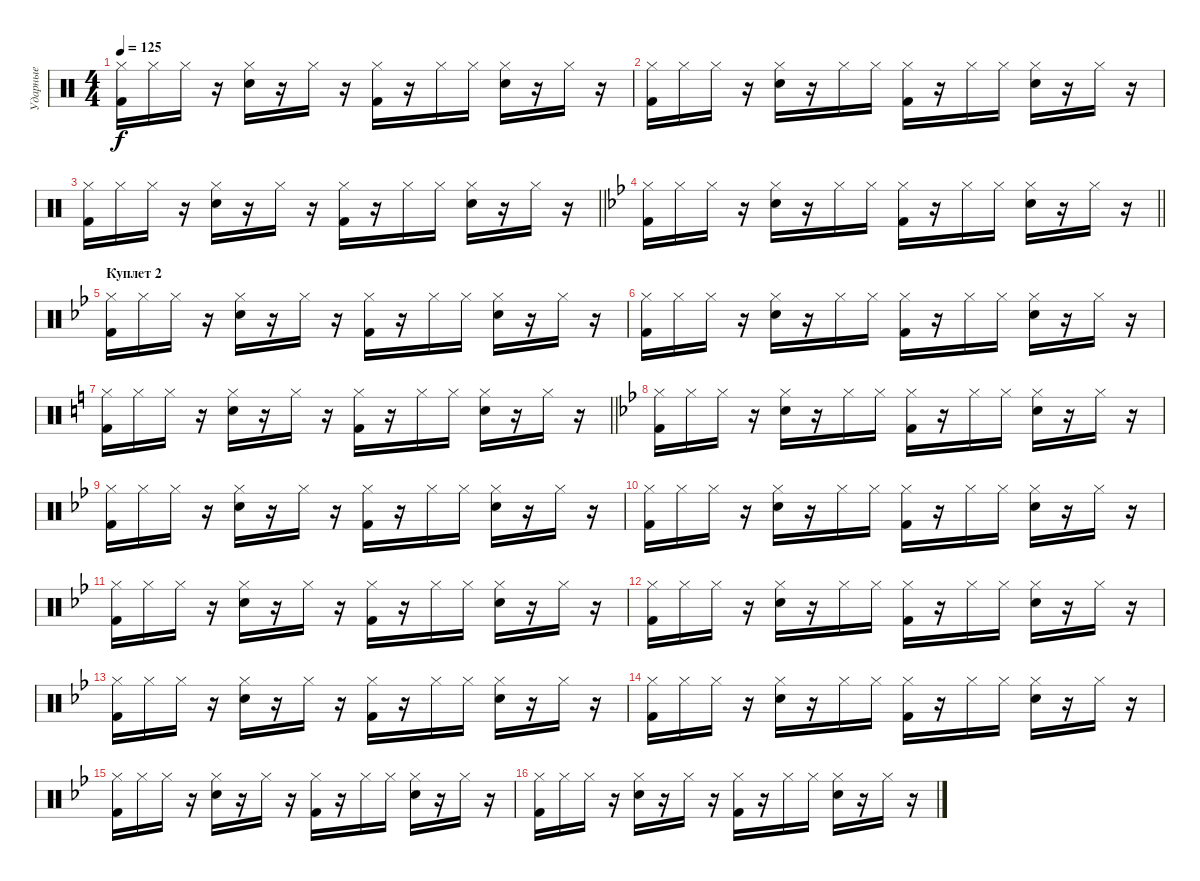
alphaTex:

\track ("Ударные" "Ударные") {instrument percussion}
\staff {score}
\articulation defaults
\ts (4 4)
\tempo 125
\clef neutral
\ks c
("Kick (hit) 2" "Hi-Hat (closed)").16{dy f} "Hi-Hat (closed)".16 "Hi-Hat (closed)".16 r.16 ("Snare (hit) 2" "Hi-Hat (closed)").16 r.16 "Hi-Hat (closed)".16 r.16 ("Kick (hit) 2" "Hi-Hat (closed)").16 r.16 "Hi-Hat (closed)".16 "Hi-Hat (closed)".16 ("Snare (hit) 2" "Hi-Hat (closed)").16 r.16 "Hi-Hat (closed)".16 r.16 |
("Kick (hit) 2" "Hi-Hat (closed)").16 "Hi-Hat (closed)".16 "Hi-Hat (closed)".16 r.16 ("Snare (hit) 2" "Hi-Hat (closed)").16 r.16 "Hi-Hat (closed)".16 "Hi-Hat (closed)".16 ("Kick (hit) 2" "Hi-Hat (closed)").16 r.16 "Hi-Hat (closed)".16 "Hi-Hat (closed)".16 ("Snare (hit) 2" "Hi-Hat (closed)").16 r.16 "Hi-Hat (closed)".16 r.16 |
\barLineRight lightlight
("Kick (hit) 2" "Hi-Hat (closed)").16 "Hi-Hat (closed)".16 "Hi-Hat (closed)".16 r.16 ("Snare (hit) 2" "Hi-Hat (closed)").16 r.16 "Hi-Hat (closed)".16 r.16 ("Kick (hit) 2" "Hi-Hat (closed)").16 r.16 "Hi-Hat (closed)".16 "Hi-Hat (closed)".16 ("Snare (hit) 2" "Hi-Hat (closed)").16 r.16 "Hi-Hat (closed)".16 r.16 |
\barLineRight lightlight
\ks bb
("Kick (hit) 2" "Hi-Hat (closed)").16 "Hi-Hat (closed)".16 "Hi-Hat (closed)".16 r.16 ("Snare (hit) 2" "Hi-Hat (closed)").16 r.16 "Hi-Hat (closed)".16 "Hi-Hat (closed)".16 ("Kick (hit) 2" "Hi-Hat (closed)").16 r.16 "Hi-Hat (closed)".16 "Hi-Hat (closed)".16 ("Snare (hit) 2" "Hi-Hat (closed)").16 r.16 "Hi-Hat (closed)".16 r.16 |
\section ("" "Куплет 2")
("Kick (hit) 2" "Hi-Hat (closed)").16 "Hi-Hat (closed)".16 "Hi-Hat (closed)".16 r.16 ("Snare (hit) 2" "Hi-Hat (closed)").16 r.16 "Hi-Hat (closed)".16 r.16 ("Kick (hit) 2" "Hi-Hat (closed)").16 r.16 "Hi-Hat (closed)".16 "Hi-Hat (closed)".16 ("Snare (hit) 2" "Hi-Hat (closed)").16 r.16 "Hi-Hat (closed)".16 r.16 |
("Kick (hit) 2" "Hi-Hat (closed)").16 "Hi-Hat (closed)".16 "Hi-Hat (closed)".16 r.16 ("Snare (hit) 2" "Hi-Hat (closed)").16 r.16 "Hi-Hat (closed)".16 "Hi-Hat (closed)".16 ("Kick (hit) 2" "Hi-Hat (closed)").16 r.16 "Hi-Hat (closed)".16 "Hi-Hat (closed)".16 ("Snare (hit) 2" "Hi-Hat (closed)").16 r.16 "Hi-Hat (closed)".16 r.16 |
\barLineRight lightlight
\ks c
("Kick (hit) 2" "Hi-Hat (closed)").16 "Hi-Hat (closed)".16 "Hi-Hat (closed)".16 r.16 ("Snare (hit) 2" "Hi-Hat (closed)").16 r.16 "Hi-Hat (closed)".16 r.16 ("Kick (hit) 2" "Hi-Hat (closed)").16 r.16 "Hi-Hat (closed)".16 "Hi-Hat (closed)".16 ("Snare (hit) 2" "Hi-Hat (closed)").16 r.16 "Hi-Hat (closed)".16 r.16 |
\ks bb
("Kick (hit) 2" "Hi-Hat (closed)").16 "Hi-Hat (closed)".16 "Hi-Hat (closed)".16 r.16 ("Snare (hit) 2" "Hi-Hat (closed)").16 r.16 "Hi-Hat (closed)".16 "Hi-Hat (closed)".16 ("Kick (hit) 2" "Hi-Hat (closed)").16 r.16 "Hi-Hat (closed)".16 "Hi-Hat (closed)".16 ("Snare (hit) 2" "Hi-Hat (closed)").16 r.16 "Hi-Hat (closed)".16 r.16 |
("Kick (hit) 2" "Hi-Hat (closed)").16 "Hi-Hat (closed)".16 "Hi-Hat (closed)".16 r.16 ("Snare (hit) 2" "Hi-Hat (closed)").16 r.16 "Hi-Hat (closed)".16 r.16 ("Kick (hit) 2" "Hi-Hat (closed)").16 r.16 "Hi-Hat (closed)".16 "Hi-Hat (closed)".16 ("Snare (hit) 2" "Hi-Hat (closed)").16 r.16 "Hi-Hat (closed)".16 r.16 |
("Kick (hit) 2" "Hi-Hat (closed)").16 "Hi-Hat (closed)".16 "Hi-Hat (closed)".16 r.16 ("Snare (hit) 2" "Hi-Hat (closed)").16 r.16 "Hi-Hat (closed)".16 "Hi-Hat (closed)".16 ("Kick (hit) 2" "Hi-Hat (closed)").16 r.16 "Hi-Hat (closed)".16 "Hi-Hat (closed)".16 ("Snare (hit) 2" "Hi-Hat (closed)").16 r.16 "Hi-Hat (closed)".16 r.16 |
("Kick (hit) 2" "Hi-Hat (closed)").16 "Hi-Hat (closed)".16 "Hi-Hat (closed)".16 r.16 ("Snare (hit) 2" "Hi-Hat (closed)").16 r.16 "Hi-Hat (closed)".16 r.16 ("Kick (hit) 2" "Hi-Hat (closed)").16 r.16 "Hi-Hat (closed)".16 "Hi-Hat (closed)".16 ("Snare (hit) 2" "Hi-Hat (closed)").16 r.16 "Hi-Hat (closed)".16 r.16 |
("Kick (hit) 2" "Hi-Hat (closed)").16 "Hi-Hat (closed)".16 "Hi-Hat (closed)".16 r.16 ("Snare (hit) 2" "Hi-Hat (closed)").16 r.16 "Hi-Hat (closed)".16 "Hi-Hat (closed)".16 ("Kick (hit) 2" "Hi-Hat (closed)").16 r.16 "Hi-Hat (closed)".16 "Hi-Hat (closed)".16 ("Snare (hit) 2" "Hi-Hat (closed)").16 r.16 "Hi-Hat (closed)".16 r.16 |
("Kick (hit) 2" "Hi-Hat (closed)").16 "Hi-Hat (closed)".16 "Hi-Hat (closed)".16 r.16 ("Snare (hit) 2" "Hi-Hat (closed)").16 r.16 "Hi-Hat (closed)".16 r.16 ("Kick (hit) 2" "Hi-Hat (closed)").16 r.16 "Hi-Hat (closed)".16 "Hi-Hat (closed)".16 ("Snare (hit) 2" "Hi-Hat (closed)").16 r.16 "Hi-Hat (closed)".16 r.16 |
("Kick (hit) 2" "Hi-Hat (closed)").16 "Hi-Hat (closed)".16 "Hi-Hat (closed)".16 r.16 ("Snare (hit) 2" "Hi-Hat (closed)").16 r.16 "Hi-Hat (closed)".16 "Hi-Hat (closed)".16 ("Kick (hit) 2" "Hi-Hat (closed)").16 r.16 "Hi-Hat (closed)".16 "Hi-Hat (closed)".16 ("Snare (hit) 2" "Hi-Hat (closed)").16 r.16 "Hi-Hat (closed)".16 r.16 |
("Kick (hit) 2" "Hi-Hat (closed)").16 "Hi-Hat (closed)".16 "Hi-Hat (closed)".16 r.16 ("Snare (hit) 2" "Hi-Hat (closed)").16 r.16 "Hi-Hat (closed)".16 r.16 ("Kick (hit) 2" "Hi-Hat (closed)").16 r.16 "Hi-Hat (closed)".16 "Hi-Hat (closed)".16 ("Snare (hit) 2" "Hi-Hat (closed)").16 r.16 "Hi-Hat (closed)".16 r.16 |
("Kick (hit) 2" "Hi-Hat (closed)").16 "Hi-Hat (closed)".16 "Hi-Hat (closed)".16 r.16 ("Snare (hit) 2" "Hi-Hat (closed)").16 r.16 "Hi-Hat (closed)".16 r.16 ("Kick (hit) 2" "Hi-Hat (closed)").16 r.16 "Hi-Hat (closed)".16 "Hi-Hat (closed)".16 ("Snare (hit) 2" "Hi-Hat (closed)").16 r.16 "Hi-Hat (closed)".16 r.16
